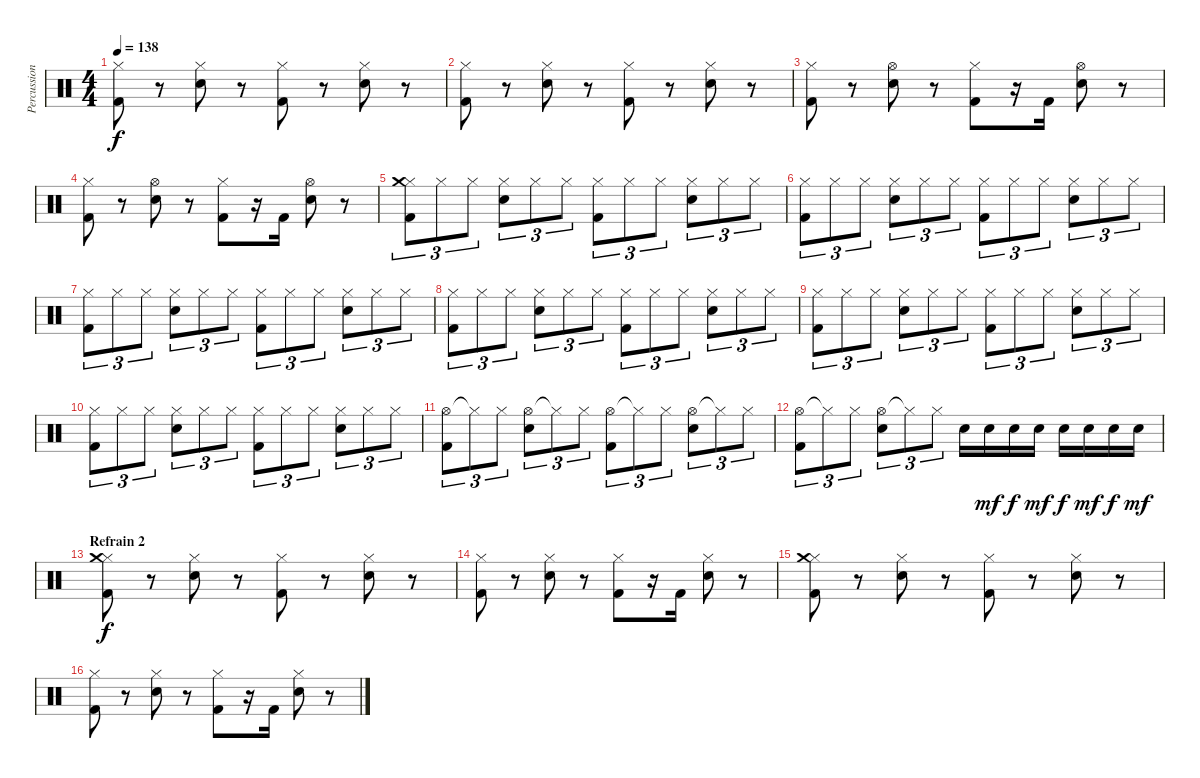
\track ("Percussions" "Percussion") {instrument percussion}
\staff {score}
\articulation defaults
\ts (4 4)
\tempo 138
\clef neutral
\ks c
("Hi-Hat (closed)" "Kick (hit) 2").8{dy f} r.8 ("Hi-Hat (closed)" "Electric Snare (hit)").8 r.8 ("Hi-Hat (closed)" "Kick (hit) 2").8 r.8 ("Hi-Hat (closed)" "Electric Snare (hit)").8 r.8 |
("Hi-Hat (closed)" "Kick (hit) 2").8 r.8 ("Hi-Hat (closed)" "Electric Snare (hit)").8 r.8 ("Hi-Hat (closed)" "Kick (hit) 2").8 r.8 ("Hi-Hat (closed)" "Electric Snare (hit)").8 r.8 |
("Hi-Hat (closed)" "Kick (hit) 2").8 r.8 ("Hi-Hat (open)" "Electric Snare (hit)").8 r.8 ("Hi-Hat (closed)" "Kick (hit) 2").8 r.16 "Kick (hit) 2".16 ("Hi-Hat (open)" "Electric Snare (hit)").8 r.8 |
("Hi-Hat (closed)" "Kick (hit) 2").8 r.8 ("Hi-Hat (open)" "Electric Snare (hit)").8 r.8 ("Hi-Hat (closed)" "Kick (hit) 2").8 r.16 "Kick (hit) 2".16 ("Hi-Hat (open)" "Electric Snare (hit)").8 r.8 |
("Hi-Hat (closed)" "Crash medium (hit)" "Kick (hit) 2").8{tu (3 2)} "Hi-Hat (closed)".8{tu (3 2)} "Hi-Hat (closed)".8{tu (3 2)} ("Hi-Hat (closed)" "Electric Snare (hit)").8{tu (3 2)} "Hi-Hat (closed)".8{tu (3 2)} "Hi-Hat (closed)".8{tu (3 2)} ("Hi-Hat (closed)" "Kick (hit) 2").8{tu (3 2)} "Hi-Hat (closed)".8{tu (3 2)} "Hi-Hat (closed)".8{tu (3 2)} ("Hi-Hat (closed)" "Electric Snare (hit)").8{tu (3 2)} "Hi-Hat (closed)".8{tu (3 2)} "Hi-Hat (closed)".8{tu (3 2)} |
("Hi-Hat (closed)" "Kick (hit) 2").8{tu (3 2)} "Hi-Hat (closed)".8{tu (3 2)} "Hi-Hat (closed)".8{tu (3 2)} ("Hi-Hat (closed)" "Electric Snare (hit)").8{tu (3 2)} "Hi-Hat (closed)".8{tu (3 2)} "Hi-Hat (closed)".8{tu (3 2)} ("Hi-Hat (closed)" "Kick (hit) 2").8{tu (3 2)} "Hi-Hat (closed)".8{tu (3 2)} "Hi-Hat (closed)".8{tu (3 2)} ("Hi-Hat (closed)" "Electric Snare (hit)").8{tu (3 2)} "Hi-Hat (closed)".8{tu (3 2)} "Hi-Hat (closed)".8{tu (3 2)} |
("Hi-Hat (closed)" "Kick (hit) 2").8{tu (3 2)} "Hi-Hat (closed)".8{tu (3 2)} "Hi-Hat (closed)".8{tu (3 2)} ("Hi-Hat (closed)" "Electric Snare (hit)").8{tu (3 2)} "Hi-Hat (closed)".8{tu (3 2)} "Hi-Hat (closed)".8{tu (3 2)} ("Hi-Hat (closed)" "Kick (hit) 2").8{tu (3 2)} "Hi-Hat (closed)".8{tu (3 2)} "Hi-Hat (closed)".8{tu (3 2)} ("Hi-Hat (closed)" "Electric Snare (hit)").8{tu (3 2)} "Hi-Hat (closed)".8{tu (3 2)} "Hi-Hat (closed)".8{tu (3 2)} |
("Hi-Hat (closed)" "Kick (hit) 2").8{tu (3 2)} "Hi-Hat (closed)".8{tu (3 2)} "Hi-Hat (closed)".8{tu (3 2)} ("Hi-Hat (closed)" "Electric Snare (hit)").8{tu (3 2)} "Hi-Hat (closed)".8{tu (3 2)} "Hi-Hat (closed)".8{tu (3 2)} ("Hi-Hat (closed)" "Kick (hit) 2").8{tu (3 2)} "Hi-Hat (closed)".8{tu (3 2)} "Hi-Hat (closed)".8{tu (3 2)} ("Hi-Hat (closed)" "Electric Snare (hit)").8{tu (3 2)} "Hi-Hat (closed)".8{tu (3 2)} "Hi-Hat (closed)".8{tu (3 2)} |
("Hi-Hat (closed)" "Kick (hit) 2").8{tu (3 2)} "Hi-Hat (closed)".8{tu (3 2)} "Hi-Hat (closed)".8{tu (3 2)} ("Hi-Hat (closed)" "Electric Snare (hit)").8{tu (3 2)} "Hi-Hat (closed)".8{tu (3 2)} "Hi-Hat (closed)".8{tu (3 2)} ("Hi-Hat (closed)" "Kick (hit) 2").8{tu (3 2)} "Hi-Hat (closed)".8{tu (3 2)} "Hi-Hat (closed)".8{tu (3 2)} ("Hi-Hat (closed)" "Electric Snare (hit)").8{tu (3 2)} "Hi-Hat (closed)".8{tu (3 2)} "Hi-Hat (closed)".8{tu (3 2)} |
("Hi-Hat (closed)" "Kick (hit) 2").8{tu (3 2)} "Hi-Hat (closed)".8{tu (3 2)} "Hi-Hat (closed)".8{tu (3 2)} ("Hi-Hat (closed)" "Electric Snare (hit)").8{tu (3 2)} "Hi-Hat (closed)".8{tu (3 2)} "Hi-Hat (closed)".8{tu (3 2)} ("Hi-Hat (closed)" "Kick (hit) 2").8{tu (3 2)} "Hi-Hat (closed)".8{tu (3 2)} "Hi-Hat (closed)".8{tu (3 2)} ("Hi-Hat (closed)" "Electric Snare (hit)").8{tu (3 2)} "Hi-Hat (closed)".8{tu (3 2)} "Hi-Hat (closed)".8{tu (3 2)} |
("Hi-Hat (open)" "Kick (hit) 2").8{tu (3 2)} "Hi-Hat (closed)"{t}.8{tu (3 2)} "Hi-Hat (closed)".8{tu (3 2)} ("Hi-Hat (open)" "Electric Snare (hit)").8{tu (3 2)} "Hi-Hat (closed)"{t}.8{tu (3 2)} "Hi-Hat (closed)".8{tu (3 2)} ("Hi-Hat (open)" "Kick (hit) 2").8{tu (3 2)} "Hi-Hat (closed)"{t}.8{tu (3 2)} "Hi-Hat (closed)".8{tu (3 2)} ("Hi-Hat (open)" "Electric Snare (hit)").8{tu (3 2)} "Hi-Hat (closed)"{t}.8{tu (3 2)} "Hi-Hat (closed)".8{tu (3 2)} |
("Hi-Hat (open)" "Kick (hit) 2").8{tu (3 2)} "Hi-Hat (closed)"{t}.8{tu (3 2)} "Hi-Hat (closed)".8{tu (3 2)} ("Hi-Hat (open)" "Electric Snare (hit)").8{tu (3 2)} "Hi-Hat (closed)"{t}.8{tu (3 2)} "Hi-Hat (closed)".8{tu (3 2)} "Electric Snare (hit)".16 "Electric Snare (hit)".16{dy mf} "Electric Snare (hit)".16{dy f} "Electric Snare (hit)".16{dy mf} "Electric Snare (hit)".16{dy f} "Electric Snare (hit)".16{dy mf} "Electric Snare (hit)".16{dy f} "Electric Snare (hit)".16{dy mf} |
\section ("" "Refrain 2")
("Hi-Hat (closed)" "Crash medium (hit)" "Kick (hit) 2").8{dy f} r.8 ("Hi-Hat (closed)" "Electric Snare (hit)").8 r.8 ("Hi-Hat (closed)" "Kick (hit) 2").8 r.8 ("Hi-Hat (closed)" "Electric Snare (hit)").8 r.8 |
("Hi-Hat (closed)" "Kick (hit) 2").8 r.8 ("Hi-Hat (closed)" "Electric Snare (hit)").8 r.8 ("Hi-Hat (closed)" "Kick (hit) 2").8 r.16 "Kick (hit) 2".16 ("Hi-Hat (closed)" "Electric Snare (hit)").8 r.8 |
("Hi-Hat (closed)" "Crash medium (hit)" "Kick (hit) 2").8 r.8 ("Hi-Hat (closed)" "Electric Snare (hit)").8 r.8 ("Hi-Hat (closed)" "Kick (hit) 2").8 r.8 ("Hi-Hat (closed)" "Electric Snare (hit)").8 r.8 |
("Hi-Hat (closed)" "Kick (hit) 2").8 r.8 ("Hi-Hat (closed)" "Electric Snare (hit)").8 r.8 ("Hi-Hat (closed)" "Kick (hit) 2").8 r.16 "Kick (hit) 2".16 ("Hi-Hat (closed)" "Electric Snare (hit)").8 r.8
